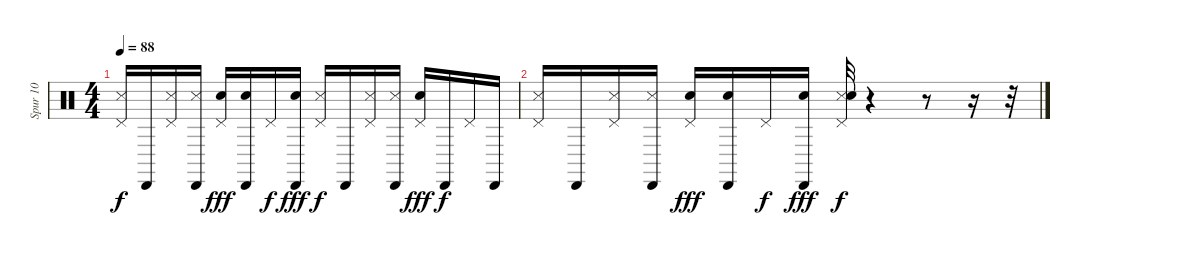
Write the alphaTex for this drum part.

\track ("Spur 10" "Spur 10") {instrument percussion}
\staff {score}
\articulation defaults
\ts (4 4)
\tempo 88
\clef neutral
\ks c
("Pedal Hi-Hat (hit)" "Metronome (hit)").16{dy f} "Cabasa (hit)".16 ("Pedal Hi-Hat (hit)" "Metronome (hit)").16 ("Cabasa (hit)" "Metronome (hit)").16 ("Pedal Hi-Hat (hit)" "Electric Snare (hit)").16{dy fff} ("Cabasa (hit)" "Electric Snare (hit)").16 "Pedal Hi-Hat (hit)".16{dy f} ("Cabasa (hit)" "Electric Snare (hit)").16{dy fff} ("Pedal Hi-Hat (hit)" "Metronome (hit)").16{dy f} "Cabasa (hit)".16 ("Pedal Hi-Hat (hit)" "Metronome (hit)").16 ("Cabasa (hit)" "Metronome (hit)").16 ("Pedal Hi-Hat (hit)" "Electric Snare (hit)").16{dy fff} "Cabasa (hit)".16{dy f} "Pedal Hi-Hat (hit)".16 "Cabasa (hit)".16 |
("Pedal Hi-Hat (hit)" "Metronome (hit)").16 "Cabasa (hit)".16 ("Metronome (hit)" "Pedal Hi-Hat (hit)").16 ("Metronome (hit)" "Cabasa (hit)").16 ("Pedal Hi-Hat (hit)" "Electric Snare (hit)").16{dy fff} ("Cabasa (hit)" "Electric Snare (hit)").16 "Pedal Hi-Hat (hit)".16{dy f} ("Cabasa (hit)" "Electric Snare (hit)").16{dy fff} ("Metronome (hit)" "Pedal Hi-Hat (hit)" "Metronome (bell)").32{dy f} r.4 r.8 r.16 r.32
